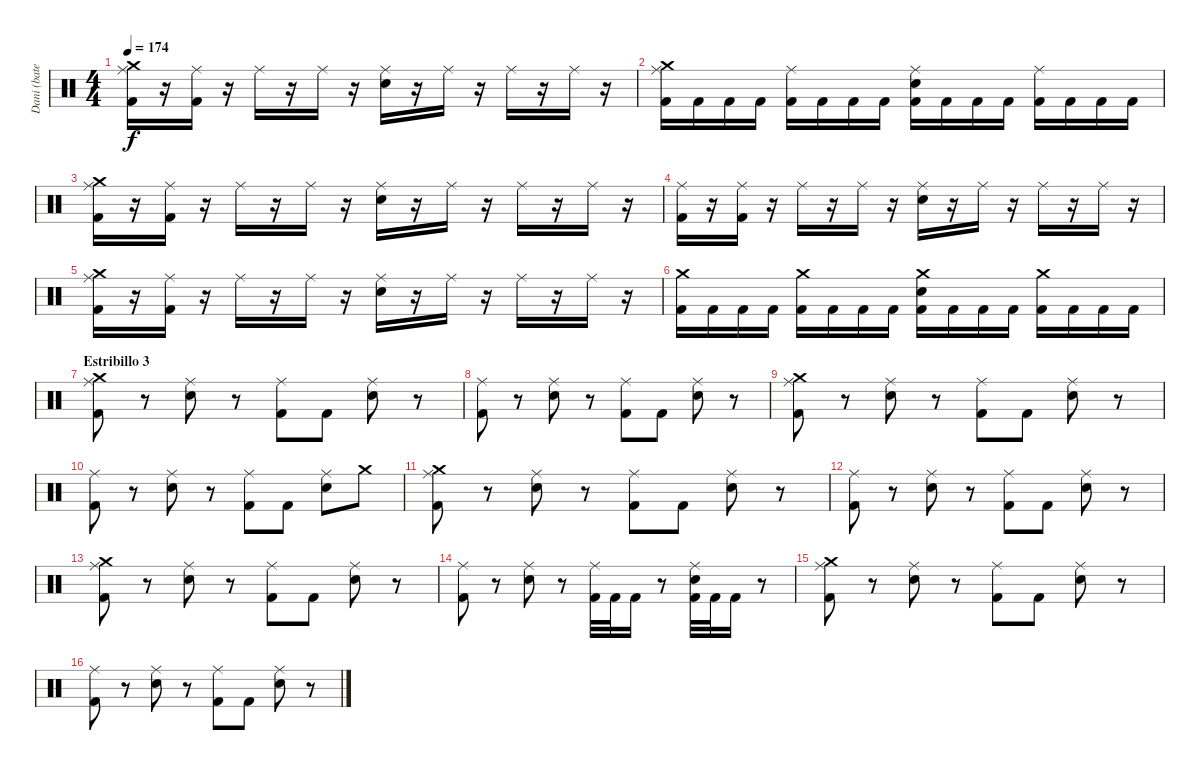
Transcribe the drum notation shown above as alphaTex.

\track ("Dani (batería)" "Dani (bate") {instrument percussion}
\staff {score}
\articulation defaults
\ts (4 4)
\tempo 174
\clef neutral
\ks c
("Crash medium (hit)" "Ride (middle)" "Kick (hit) 2").16{dy f} r.16 ("Ride (middle)" "Kick (hit) 2").16 r.16 "Ride (middle)".16 r.16 "Ride (middle)".16 r.16 ("Ride (middle)" "Electric Snare (hit)").16 r.16 "Ride (middle)".16 r.16 "Ride (middle)".16 r.16 "Ride (middle)".16 r.16 |
("Crash medium (hit)" "Ride (middle)" "Kick (hit) 2").16 "Kick (hit) 2".16 "Kick (hit) 2".16 "Kick (hit) 2".16 ("Ride (middle)" "Kick (hit) 2").16 "Kick (hit) 2".16 "Kick (hit) 2".16 "Kick (hit) 2".16 ("Ride (middle)" "Electric Snare (hit)" "Kick (hit) 2").16 "Kick (hit) 2".16 "Kick (hit) 2".16 "Kick (hit) 2".16 ("Ride (middle)" "Kick (hit) 2").16 "Kick (hit) 2".16 "Kick (hit) 2".16 "Kick (hit) 2".16 |
("Crash medium (hit)" "Ride (middle)" "Kick (hit) 2").16 r.16 ("Ride (middle)" "Kick (hit) 2").16 r.16 "Ride (middle)".16 r.16 "Ride (middle)".16 r.16 ("Ride (middle)" "Electric Snare (hit)").16 r.16 "Ride (middle)".16 r.16 "Ride (middle)".16 r.16 "Ride (middle)".16 r.16 |
("Ride (middle)" "Kick (hit) 2").16 r.16 ("Ride (middle)" "Kick (hit) 2").16 r.16 "Ride (middle)".16 r.16 "Ride (middle)".16 r.16 ("Ride (middle)" "Electric Snare (hit)").16 r.16 "Ride (middle)".16 r.16 "Ride (middle)".16 r.16 "Ride (middle)".16 r.16 |
("Crash medium (hit)" "Ride (middle)" "Kick (hit) 2").16 r.16 ("Ride (middle)" "Kick (hit) 2").16 r.16 "Ride (middle)".16 r.16 "Ride (middle)".16 r.16 ("Ride (middle)" "Electric Snare (hit)").16 r.16 "Ride (middle)".16 r.16 "Ride (middle)".16 r.16 "Ride (middle)".16 r.16 |
("Crash medium (hit)" "Kick (hit) 2").16 "Kick (hit) 2".16 "Kick (hit) 2".16 "Kick (hit) 2".16 ("Crash medium (hit)" "Kick (hit) 2").16 "Kick (hit) 2".16 "Kick (hit) 2".16 "Kick (hit) 2".16 ("Crash medium (hit)" "Electric Snare (hit)" "Kick (hit) 2").16 "Kick (hit) 2".16 "Kick (hit) 2".16 "Kick (hit) 2".16 ("Crash medium (hit)" "Kick (hit) 2").16 "Kick (hit) 2".16 "Kick (hit) 2".16 "Kick (hit) 2".16 |
\section ("" "Estribillo 3")
("Crash medium (hit)" "Ride (middle)" "Kick (hit) 2").8 r.8 ("Ride (middle)" "Electric Snare (hit)").8 r.8 ("Ride (middle)" "Kick (hit) 2").8 "Kick (hit) 2".8 ("Ride (middle)" "Electric Snare (hit)").8 r.8 |
("Ride (middle)" "Kick (hit) 2").8 r.8 ("Ride (middle)" "Electric Snare (hit)").8 r.8 ("Ride (middle)" "Kick (hit) 2").8 "Kick (hit) 2".8 ("Ride (middle)" "Electric Snare (hit)").8 r.8 |
("Crash medium (hit)" "Ride (middle)" "Kick (hit) 2").8 r.8 ("Ride (middle)" "Electric Snare (hit)").8 r.8 ("Ride (middle)" "Kick (hit) 2").8 "Kick (hit) 2".8 ("Ride (middle)" "Electric Snare (hit)").8 r.8 |
("Ride (middle)" "Kick (hit) 2").8 r.8 ("Ride (middle)" "Electric Snare (hit)").8 r.8 ("Ride (middle)" "Kick (hit) 2").8 "Kick (hit) 2".8 ("Ride (middle)" "Electric Snare (hit)").8 "Crash medium (hit)".8 |
("Crash medium (hit)" "Ride (middle)" "Kick (hit) 2").8 r.8 ("Ride (middle)" "Electric Snare (hit)").8 r.8 ("Ride (middle)" "Kick (hit) 2").8 "Kick (hit) 2".8 ("Ride (middle)" "Electric Snare (hit)").8 r.8 |
("Ride (middle)" "Kick (hit) 2").8 r.8 ("Ride (middle)" "Electric Snare (hit)").8 r.8 ("Ride (middle)" "Kick (hit) 2").8 "Kick (hit) 2".8 ("Ride (middle)" "Electric Snare (hit)").8 r.8 |
("Crash medium (hit)" "Ride (middle)" "Kick (hit) 2").8 r.8 ("Ride (middle)" "Electric Snare (hit)").8 r.8 ("Ride (middle)" "Kick (hit) 2").8 "Kick (hit) 2".8 ("Ride (middle)" "Electric Snare (hit)").8 r.8 |
("Ride (middle)" "Kick (hit) 2").8 r.8 ("Ride (middle)" "Electric Snare (hit)").8 r.8 ("Ride (middle)" "Kick (hit) 2").32 "Kick (hit) 2".32 "Kick (hit) 2".16 r.8 ("Ride (middle)" "Electric Snare (hit)" "Kick (hit) 2").32 "Kick (hit) 2".32 "Kick (hit) 2".16 r.8 |
("Crash medium (hit)" "Ride (middle)" "Kick (hit) 2").8 r.8 ("Ride (middle)" "Electric Snare (hit)").8 r.8 ("Ride (middle)" "Kick (hit) 2").8 "Kick (hit) 2".8 ("Ride (middle)" "Electric Snare (hit)").8 r.8 |
("Ride (middle)" "Kick (hit) 2").8 r.8 ("Ride (middle)" "Electric Snare (hit)").8 r.8 ("Ride (middle)" "Kick (hit) 2").8 "Kick (hit) 2".8 ("Ride (middle)" "Electric Snare (hit)").8 r.8
